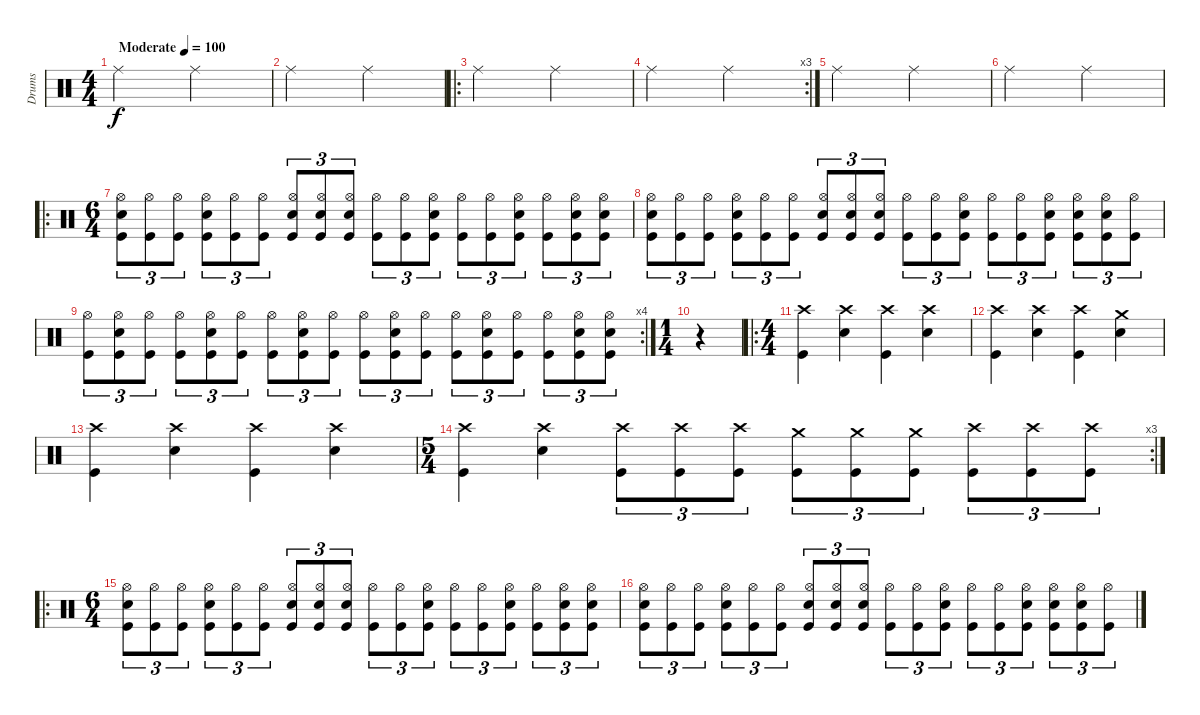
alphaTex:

\track ("Drums" "Drums") {instrument percussion}
\staff {score}
\articulation defaults
\ts (4 4)
\tempo (100 "Moderate")
\clef neutral
\ks c "Ride (middle)".2{dy f} "Ride (middle)".2
|
"Ride (middle)".2 "Ride (middle)".2 |
\ro "Ride (middle)".2 "Ride (middle)".2
|
\rc 3 "Ride (middle)".2 "Ride (middle)".2
|
"Ride (middle)".2 "Ride (middle)".2 |
"Ride (middle)".2 "Ride (middle)".2 |
\ro
\ts (6 4)
("Electric Snare (hit)" "Hi-Hat (open)" "Kick (hit)").8{tu (3 2)} ("Hi-Hat (open)" "Kick (hit)").8{tu (3 2)} ("Hi-Hat (open)" "Kick (hit)").8{tu (3 2)} ("Electric Snare (hit)" "Hi-Hat (open)" "Kick (hit)").8{tu (3 2)} ("Hi-Hat (open)" "Kick (hit)").8{tu (3 2)} ("Hi-Hat (open)" "Kick (hit)").8{tu (3 2)} ("Electric Snare (hit)" "Hi-Hat (open)" "Kick (hit)").8{tu (3 2)} ("Electric Snare (hit)" "Hi-Hat (open)" "Kick (hit)").8{tu (3 2)} ("Electric Snare (hit)" "Hi-Hat (open)" "Kick (hit)").8{tu (3 2)} ("Hi-Hat (open)" "Kick (hit)").8{tu (3 2)} ("Hi-Hat (open)" "Kick (hit)").8{tu (3 2)} ("Electric Snare (hit)" "Hi-Hat (open)" "Kick (hit)").8{tu (3 2)} ("Hi-Hat (open)" "Kick (hit)").8{tu (3 2)} ("Hi-Hat (open)" "Kick (hit)").8{tu (3 2)} ("Electric Snare (hit)" "Hi-Hat (open)" "Kick (hit)").8{tu (3 2)} ("Hi-Hat (open)" "Kick (hit)").8{tu (3 2)} ("Electric Snare (hit)" "Hi-Hat (open)" "Kick (hit)").8{tu (3 2)} ("Electric Snare (hit)" "Hi-Hat (open)" "Kick (hit)").8{tu (3 2)} |
("Electric Snare (hit)" "Hi-Hat (open)" "Kick (hit)").8{tu (3 2)} ("Hi-Hat (open)" "Kick (hit)").8{tu (3 2)} ("Hi-Hat (open)" "Kick (hit)").8{tu (3 2)} ("Electric Snare (hit)" "Hi-Hat (open)" "Kick (hit)").8{tu (3 2)} ("Hi-Hat (open)" "Kick (hit)").8{tu (3 2)} ("Hi-Hat (open)" "Kick (hit)").8{tu (3 2)} ("Electric Snare (hit)" "Hi-Hat (open)" "Kick (hit)").8{tu (3 2)} ("Electric Snare (hit)" "Hi-Hat (open)" "Kick (hit)").8{tu (3 2)} ("Electric Snare (hit)" "Hi-Hat (open)" "Kick (hit)").8{tu (3 2)} ("Hi-Hat (open)" "Kick (hit)").8{tu (3 2)} ("Hi-Hat (open)" "Kick (hit)").8{tu (3 2)} ("Electric Snare (hit)" "Hi-Hat (open)" "Kick (hit)").8{tu (3 2)} ("Hi-Hat (open)" "Kick (hit)").8{tu (3 2)} ("Hi-Hat (open)" "Kick (hit)").8{tu (3 2)} ("Electric Snare (hit)" "Hi-Hat (open)" "Kick (hit)").8{tu (3 2)} ("Electric Snare (hit)" "Hi-Hat (open)" "Kick (hit)").8{tu (3 2)} ("Electric Snare (hit)" "Hi-Hat (open)" "Kick (hit)").8{tu (3 2)} ("Hi-Hat (open)" "Kick (hit)").8{tu (3 2)} |
\rc 4
("Hi-Hat (open)" "Kick (hit)").8{tu (3 2)} ("Electric Snare (hit)" "Hi-Hat (open)" "Kick (hit)").8{tu (3 2)} ("Hi-Hat (open)" "Kick (hit)").8{tu (3 2)} ("Hi-Hat (open)" "Kick (hit)").8{tu (3 2)} ("Electric Snare (hit)" "Hi-Hat (open)" "Kick (hit)").8{tu (3 2)} ("Hi-Hat (open)" "Kick (hit)").8{tu (3 2)} ("Hi-Hat (open)" "Kick (hit)").8{tu (3 2)} ("Electric Snare (hit)" "Hi-Hat (open)" "Kick (hit)").8{tu (3 2)} ("Hi-Hat (open)" "Kick (hit)").8{tu (3 2)} ("Hi-Hat (open)" "Kick (hit)").8{tu (3 2)} ("Electric Snare (hit)" "Hi-Hat (open)" "Kick (hit)").8{tu (3 2)} ("Hi-Hat (open)" "Kick (hit)").8{tu (3 2)} ("Hi-Hat (open)" "Kick (hit)").8{tu (3 2)} ("Electric Snare (hit)" "Hi-Hat (open)" "Kick (hit)").8{tu (3 2)} ("Hi-Hat (open)" "Kick (hit)").8{tu (3 2)} ("Hi-Hat (open)" "Kick (hit)").8{tu (3 2)} ("Electric Snare (hit)" "Hi-Hat (open)" "Kick (hit)").8{tu (3 2)} ("Electric Snare (hit)" "Hi-Hat (open)" "Kick (hit)").8{tu (3 2)} |
\ts (1 4)
r.4 |
\ro
\ts (4 4)
("Crash high (hit)" "Kick (hit)").4 ("Crash high (hit)" "Electric Snare (hit)").4 ("Crash high (hit)" "Kick (hit)").4 ("Crash high (hit)" "Electric Snare (hit)").4 |
("Crash high (hit)" "Kick (hit)").4 ("Crash high (hit)" "Electric Snare (hit)").4 ("Crash high (hit)" "Kick (hit)").4 ("Crash medium (hit)" "Electric Snare (hit)").4 |
("Crash high (hit)" "Kick (hit)").4 ("Crash high (hit)" "Electric Snare (hit)").4 ("Crash high (hit)" "Kick (hit)").4 ("Crash high (hit)" "Electric Snare (hit)").4 |
\rc 3
\ts (5 4)
("Crash high (hit)" "Kick (hit)").4 ("Crash high (hit)" "Electric Snare (hit)").4 ("Crash high (hit)" "Kick (hit)").8{tu (3 2)} ("Crash high (hit)" "Kick (hit)").8{tu (3 2)} ("Crash high (hit)" "Kick (hit)").8{tu (3 2)} ("Crash medium (hit)" "Kick (hit)").8{tu (3 2)} ("Crash medium (hit)" "Kick (hit)").8{tu (3 2)} ("Crash medium (hit)" "Kick (hit)").8{tu (3 2)} ("Crash high (hit)" "Kick (hit)").8{tu (3 2)} ("Crash high (hit)" "Kick (hit)").8{tu (3 2)} ("Crash high (hit)" "Kick (hit)").8{tu (3 2)} |
\ro
\ts (6 4)
("Electric Snare (hit)" "Hi-Hat (open)" "Kick (hit)").8{tu (3 2)} ("Hi-Hat (open)" "Kick (hit)").8{tu (3 2)} ("Hi-Hat (open)" "Kick (hit)").8{tu (3 2)} ("Electric Snare (hit)" "Hi-Hat (open)" "Kick (hit)").8{tu (3 2)} ("Hi-Hat (open)" "Kick (hit)").8{tu (3 2)} ("Hi-Hat (open)" "Kick (hit)").8{tu (3 2)} ("Electric Snare (hit)" "Hi-Hat (open)" "Kick (hit)").8{tu (3 2)} ("Electric Snare (hit)" "Hi-Hat (open)" "Kick (hit)").8{tu (3 2)} ("Electric Snare (hit)" "Hi-Hat (open)" "Kick (hit)").8{tu (3 2)} ("Hi-Hat (open)" "Kick (hit)").8{tu (3 2)} ("Hi-Hat (open)" "Kick (hit)").8{tu (3 2)} ("Electric Snare (hit)" "Hi-Hat (open)" "Kick (hit)").8{tu (3 2)} ("Hi-Hat (open)" "Kick (hit)").8{tu (3 2)} ("Hi-Hat (open)" "Kick (hit)").8{tu (3 2)} ("Electric Snare (hit)" "Hi-Hat (open)" "Kick (hit)").8{tu (3 2)} ("Hi-Hat (open)" "Kick (hit)").8{tu (3 2)} ("Electric Snare (hit)" "Hi-Hat (open)" "Kick (hit)").8{tu (3 2)} ("Electric Snare (hit)" "Hi-Hat (open)" "Kick (hit)").8{tu (3 2)} |
("Electric Snare (hit)" "Hi-Hat (open)" "Kick (hit)").8{tu (3 2)} ("Hi-Hat (open)" "Kick (hit)").8{tu (3 2)} ("Hi-Hat (open)" "Kick (hit)").8{tu (3 2)} ("Electric Snare (hit)" "Hi-Hat (open)" "Kick (hit)").8{tu (3 2)} ("Hi-Hat (open)" "Kick (hit)").8{tu (3 2)} ("Hi-Hat (open)" "Kick (hit)").8{tu (3 2)} ("Electric Snare (hit)" "Hi-Hat (open)" "Kick (hit)").8{tu (3 2)} ("Electric Snare (hit)" "Hi-Hat (open)" "Kick (hit)").8{tu (3 2)} ("Electric Snare (hit)" "Hi-Hat (open)" "Kick (hit)").8{tu (3 2)} ("Hi-Hat (open)" "Kick (hit)").8{tu (3 2)} ("Hi-Hat (open)" "Kick (hit)").8{tu (3 2)} ("Electric Snare (hit)" "Hi-Hat (open)" "Kick (hit)").8{tu (3 2)} ("Hi-Hat (open)" "Kick (hit)").8{tu (3 2)} ("Hi-Hat (open)" "Kick (hit)").8{tu (3 2)} ("Electric Snare (hit)" "Hi-Hat (open)" "Kick (hit)").8{tu (3 2)} ("Electric Snare (hit)" "Hi-Hat (open)" "Kick (hit)").8{tu (3 2)} ("Electric Snare (hit)" "Hi-Hat (open)" "Kick (hit)").8{tu (3 2)} ("Hi-Hat (open)" "Kick (hit)").8{tu (3 2)}
